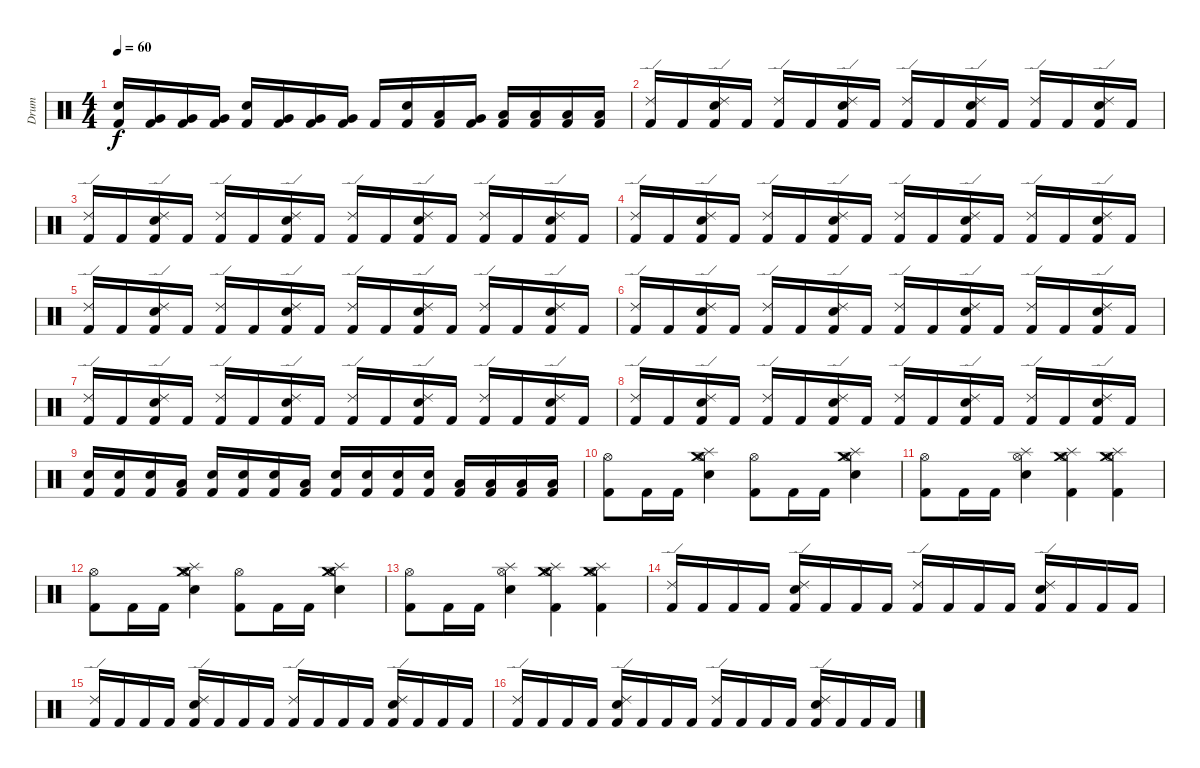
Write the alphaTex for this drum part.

\track ("Drum" "Drum") {instrument percussion}
\staff {score}
\articulation defaults
\ts (4 4)
\tempo 60
\clef neutral
\ks c
("Electric Snare (hit)" "Kick (hit) 2").16{dy f} ("Very Low Tom (hit)" "Kick (hit) 2").16 ("Very Low Tom (hit)" "Kick (hit) 2").16 ("Very Low Tom (hit)" "Kick (hit) 2").16 ("Electric Snare (hit)" "Kick (hit) 2").16 ("Very Low Tom (hit)" "Kick (hit) 2").16 ("Very Low Tom (hit)" "Kick (hit) 2").16 ("Very Low Tom (hit)" "Kick (hit) 2").16 "Kick (hit) 2".16 ("Electric Snare (hit)" "Kick (hit) 2").16 ("Low Tom (hit)" "Kick (hit) 2").16 ("Very Low Tom (hit)" "Kick (hit) 2").16 ("Low Floor Tom (hit)" "Kick (hit) 2").16 ("Low Floor Tom (hit)" "Kick (hit) 2").16 ("Low Floor Tom (hit)" "Kick (hit) 2").16 ("Low Floor Tom (hit)" "Kick (hit) 2").16 |
("Ride (edge) 2" "Kick (hit) 2").16 "Kick (hit) 2".16 ("Electric Snare (hit)" "Ride (edge) 2" "Kick (hit) 2").16 "Kick (hit) 2".16 ("Ride (edge) 2" "Kick (hit) 2").16 "Kick (hit) 2".16 ("Electric Snare (hit)" "Ride (edge) 2" "Kick (hit) 2").16 "Kick (hit) 2".16 ("Ride (edge) 2" "Kick (hit) 2").16 "Kick (hit) 2".16 ("Electric Snare (hit)" "Ride (edge) 2" "Kick (hit) 2").16 "Kick (hit) 2".16 ("Ride (edge) 2" "Kick (hit) 2").16 "Kick (hit) 2".16 ("Electric Snare (hit)" "Ride (edge) 2" "Kick (hit) 2").16 "Kick (hit) 2".16 |
("Ride (edge) 2" "Kick (hit) 2").16 "Kick (hit) 2".16 ("Electric Snare (hit)" "Ride (edge) 2" "Kick (hit) 2").16 "Kick (hit) 2".16 ("Ride (edge) 2" "Kick (hit) 2").16 "Kick (hit) 2".16 ("Electric Snare (hit)" "Ride (edge) 2" "Kick (hit) 2").16 "Kick (hit) 2".16 ("Ride (edge) 2" "Kick (hit) 2").16 "Kick (hit) 2".16 ("Electric Snare (hit)" "Ride (edge) 2" "Kick (hit) 2").16 "Kick (hit) 2".16 ("Ride (edge) 2" "Kick (hit) 2").16 "Kick (hit) 2".16 ("Electric Snare (hit)" "Ride (edge) 2" "Kick (hit) 2").16 "Kick (hit) 2".16 |
("Ride (edge) 2" "Kick (hit) 2").16 "Kick (hit) 2".16 ("Electric Snare (hit)" "Ride (edge) 2" "Kick (hit) 2").16 "Kick (hit) 2".16 ("Ride (edge) 2" "Kick (hit) 2").16 "Kick (hit) 2".16 ("Electric Snare (hit)" "Ride (edge) 2" "Kick (hit) 2").16 "Kick (hit) 2".16 ("Ride (edge) 2" "Kick (hit) 2").16 "Kick (hit) 2".16 ("Electric Snare (hit)" "Ride (edge) 2" "Kick (hit) 2").16 "Kick (hit) 2".16 ("Ride (edge) 2" "Kick (hit) 2").16 "Kick (hit) 2".16 ("Electric Snare (hit)" "Ride (edge) 2" "Kick (hit) 2").16 "Kick (hit) 2".16 |
("Ride (edge) 2" "Kick (hit) 2").16 "Kick (hit) 2".16 ("Electric Snare (hit)" "Ride (edge) 2" "Kick (hit) 2").16 "Kick (hit) 2".16 ("Ride (edge) 2" "Kick (hit) 2").16 "Kick (hit) 2".16 ("Electric Snare (hit)" "Ride (edge) 2" "Kick (hit) 2").16 "Kick (hit) 2".16 ("Ride (edge) 2" "Kick (hit) 2").16 "Kick (hit) 2".16 ("Electric Snare (hit)" "Ride (edge) 2" "Kick (hit) 2").16 "Kick (hit) 2".16 ("Ride (edge) 2" "Kick (hit) 2").16 "Kick (hit) 2".16 ("Electric Snare (hit)" "Ride (edge) 2" "Kick (hit) 2").16 "Kick (hit) 2".16 |
("Ride (edge) 2" "Kick (hit) 2").16 "Kick (hit) 2".16 ("Electric Snare (hit)" "Ride (edge) 2" "Kick (hit) 2").16 "Kick (hit) 2".16 ("Ride (edge) 2" "Kick (hit) 2").16 "Kick (hit) 2".16 ("Electric Snare (hit)" "Ride (edge) 2" "Kick (hit) 2").16 "Kick (hit) 2".16 ("Ride (edge) 2" "Kick (hit) 2").16 "Kick (hit) 2".16 ("Electric Snare (hit)" "Ride (edge) 2" "Kick (hit) 2").16 "Kick (hit) 2".16 ("Ride (edge) 2" "Kick (hit) 2").16 "Kick (hit) 2".16 ("Electric Snare (hit)" "Ride (edge) 2" "Kick (hit) 2").16 "Kick (hit) 2".16 |
("Ride (edge) 2" "Kick (hit) 2").16 "Kick (hit) 2".16 ("Electric Snare (hit)" "Ride (edge) 2" "Kick (hit) 2").16 "Kick (hit) 2".16 ("Ride (edge) 2" "Kick (hit) 2").16 "Kick (hit) 2".16 ("Electric Snare (hit)" "Ride (edge) 2" "Kick (hit) 2").16 "Kick (hit) 2".16 ("Ride (edge) 2" "Kick (hit) 2").16 "Kick (hit) 2".16 ("Electric Snare (hit)" "Ride (edge) 2" "Kick (hit) 2").16 "Kick (hit) 2".16 ("Ride (edge) 2" "Kick (hit) 2").16 "Kick (hit) 2".16 ("Electric Snare (hit)" "Ride (edge) 2" "Kick (hit) 2").16 "Kick (hit) 2".16 |
("Ride (edge) 2" "Kick (hit) 2").16 "Kick (hit) 2".16 ("Electric Snare (hit)" "Ride (edge) 2" "Kick (hit) 2").16 "Kick (hit) 2".16 ("Ride (edge) 2" "Kick (hit) 2").16 "Kick (hit) 2".16 ("Electric Snare (hit)" "Ride (edge) 2" "Kick (hit) 2").16 "Kick (hit) 2".16 ("Ride (edge) 2" "Kick (hit) 2").16 "Kick (hit) 2".16 ("Electric Snare (hit)" "Ride (edge) 2" "Kick (hit) 2").16 "Kick (hit) 2".16 ("Ride (edge) 2" "Kick (hit) 2").16 "Kick (hit) 2".16 ("Electric Snare (hit)" "Ride (edge) 2" "Kick (hit) 2").16 "Kick (hit) 2".16 |
("Electric Snare (hit)" "Kick (hit) 2").16 ("Electric Snare (hit)" "Kick (hit) 2").16 ("Electric Snare (hit)" "Kick (hit) 2").16 ("Low Tom (hit)" "Kick (hit) 2").16 ("Electric Snare (hit)" "Kick (hit) 2").16 ("Electric Snare (hit)" "Kick (hit) 2").16 ("Electric Snare (hit)" "Kick (hit) 2").16 ("Low Tom (hit)" "Kick (hit) 2").16 ("Electric Snare (hit)" "Kick (hit) 2").16 ("Electric Snare (hit)" "Kick (hit) 2").16 ("Electric Snare (hit)" "Kick (hit) 2").16 ("Electric Snare (hit)" "Kick (hit) 2").16 ("Low Tom (hit)" "Kick (hit) 2").16 ("Low Tom (hit)" "Kick (hit) 2").16 ("Low Tom (hit)" "Kick (hit) 2").16 ("Low Tom (hit)" "Kick (hit) 2").16 |
("Hi-Hat (open)" "Kick (hit) 2").8 "Kick (hit) 2".16 "Kick (hit) 2".16 ("Crash medium (hit)" "Electric Snare (hit)" "Splash (hit)" "Hi-Hat (open)").4 ("Hi-Hat (open)" "Kick (hit) 2").8 "Kick (hit) 2".16 "Kick (hit) 2".16 ("Crash medium (hit)" "Electric Snare (hit)" "Splash (hit)" "Hi-Hat (open)").4 |
("Hi-Hat (open)" "Kick (hit) 2").8 "Kick (hit) 2".16 "Kick (hit) 2".16 ("Electric Snare (hit)" "Splash (hit)" "Hi-Hat (open)").4 ("Crash medium (hit)" "Splash (hit)" "Hi-Hat (open)" "Kick (hit) 2").4 ("Crash medium (hit)" "Hi-Hat (open)" "Splash (hit)" "Kick (hit) 2").4 |
("Hi-Hat (open)" "Kick (hit) 2").8 "Kick (hit) 2".16 "Kick (hit) 2".16 ("Crash medium (hit)" "Electric Snare (hit)" "Splash (hit)" "Hi-Hat (open)").4 ("Hi-Hat (open)" "Kick (hit) 2").8 "Kick (hit) 2".16 "Kick (hit) 2".16 ("Crash medium (hit)" "Electric Snare (hit)" "Splash (hit)" "Hi-Hat (open)").4 |
("Hi-Hat (open)" "Kick (hit) 2").8 "Kick (hit) 2".16 "Kick (hit) 2".16 ("Electric Snare (hit)" "Splash (hit)" "Hi-Hat (open)").4 ("Crash medium (hit)" "Splash (hit)" "Hi-Hat (open)" "Kick (hit) 2").4 ("Crash medium (hit)" "Hi-Hat (open)" "Splash (hit)" "Kick (hit) 2").4 |
("Ride (edge) 2" "Kick (hit) 2").16 "Kick (hit) 2".16 "Kick (hit) 2".16 "Kick (hit) 2".16 ("Electric Snare (hit)" "Ride (edge) 2" "Kick (hit) 2").16 "Kick (hit) 2".16 "Kick (hit) 2".16 "Kick (hit) 2".16 ("Ride (edge) 2" "Kick (hit) 2").16 "Kick (hit) 2".16 "Kick (hit) 2".16 "Kick (hit) 2".16 ("Electric Snare (hit)" "Ride (edge) 2" "Kick (hit) 2").16 "Kick (hit) 2".16 "Kick (hit) 2".16 "Kick (hit) 2".16 |
("Ride (edge) 2" "Kick (hit) 2").16 "Kick (hit) 2".16 "Kick (hit) 2".16 "Kick (hit) 2".16 ("Electric Snare (hit)" "Ride (edge) 2" "Kick (hit) 2").16 "Kick (hit) 2".16 "Kick (hit) 2".16 "Kick (hit) 2".16 ("Ride (edge) 2" "Kick (hit) 2").16 "Kick (hit) 2".16 "Kick (hit) 2".16 "Kick (hit) 2".16 ("Electric Snare (hit)" "Ride (edge) 2" "Kick (hit) 2").16 "Kick (hit) 2".16 "Kick (hit) 2".16 "Kick (hit) 2".16 |
("Ride (edge) 2" "Kick (hit) 2").16 "Kick (hit) 2".16 "Kick (hit) 2".16 "Kick (hit) 2".16 ("Electric Snare (hit)" "Ride (edge) 2" "Kick (hit) 2").16 "Kick (hit) 2".16 "Kick (hit) 2".16 "Kick (hit) 2".16 ("Ride (edge) 2" "Kick (hit) 2").16 "Kick (hit) 2".16 "Kick (hit) 2".16 "Kick (hit) 2".16 ("Electric Snare (hit)" "Ride (edge) 2" "Kick (hit) 2").16 "Kick (hit) 2".16 "Kick (hit) 2".16 "Kick (hit) 2".16
